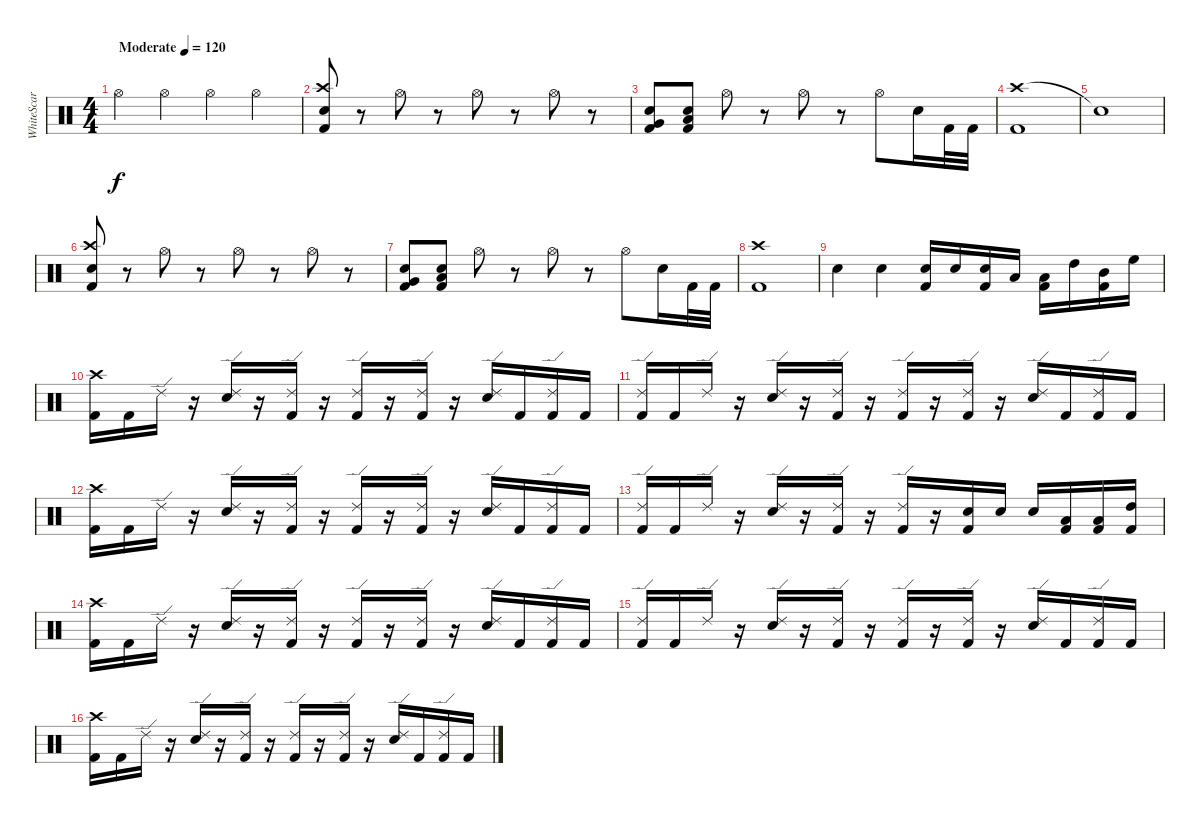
\track ("WhiteScar" "WhiteScar") {instrument percussion}
\staff {score}
\articulation defaults
\ts (4 4)
\tempo (120 "Moderate")
\clef neutral
\ks c "Hi-Hat (open)".4{dy f} "Hi-Hat (open)".4 "Hi-Hat (open)".4 "Hi-Hat (open)".4
|
("Snare (hit) 2" "Crash high (hit)" "Kick (hit) 2").8 r.8 "Hi-Hat (open)".8 r.8 "Hi-Hat (open)".8 r.8 "Hi-Hat (open)".8 r.8 |
("Very Low Tom (hit)" "Snare (hit) 2" "Kick (hit) 2").8 ("Low Tom (hit)" "Snare (hit) 2" "Kick (hit) 2").8 "Hi-Hat (open)".8 r.8 "Hi-Hat (open)".8 r.8 "Hi-Hat (open)".8 "Snare (hit) 2".16 "Kick (hit) 2".32 "Kick (hit) 2".32 |
("Crash high (hit)" "Kick (hit) 2").1 |
"Snare (hit)"{t}.1 |
("Snare (hit) 2" "Crash high (hit)" "Kick (hit) 2").8 r.8 "Hi-Hat (open)".8 r.8 "Hi-Hat (open)".8 r.8 "Hi-Hat (open)".8 r.8 |
("Very Low Tom (hit)" "Snare (hit) 2" "Kick (hit) 2").8 ("Low Tom (hit)" "Snare (hit) 2" "Kick (hit) 2").8 "Hi-Hat (open)".8 r.8 "Hi-Hat (open)".8 r.8 "Hi-Hat (open)".8 "Snare (hit) 2".16 "Kick (hit) 2".32 "Kick (hit) 2".32 |
("Crash high (hit)" "Kick (hit) 2").1 |
"Snare (hit) 2".4 "Snare (hit) 2".4 ("Snare (hit) 2" "Kick (hit) 2").16 "Snare (hit) 2".16 ("Snare (hit) 2" "Kick (hit) 2").16 "Low Tom (hit)".16 ("Low Tom (hit)" "Kick (hit) 2").16 "High Tom (hit)".16 ("Mid Tom (hit)" "Kick (hit) 2").16 "High Floor Tom (hit)".16 |
("Crash high (hit)" "Kick (hit) 2").16 "Kick (hit) 2".16 "Ride (edge) 2".16 r.16 ("Ride (edge) 2" "Snare (hit) 2").16 r.16 ("Ride (edge) 2" "Kick (hit) 2").16 r.16 ("Ride (edge) 2" "Kick (hit) 2").16 r.16 ("Ride (edge) 2" "Kick (hit) 2").16 r.16 ("Ride (edge) 2" "Snare (hit) 2").16 "Kick (hit) 2".16 ("Ride (edge) 2" "Kick (hit) 2").16 "Kick (hit) 2".16 |
("Ride (edge) 2" "Kick (hit) 2").16 "Kick (hit) 2".16 "Ride (edge) 2".16 r.16 ("Ride (edge) 2" "Snare (hit) 2").16 r.16 ("Ride (edge) 2" "Kick (hit) 2").16 r.16 ("Ride (edge) 2" "Kick (hit) 2").16 r.16 ("Ride (edge) 2" "Kick (hit) 2").16 r.16 ("Ride (edge) 2" "Snare (hit) 2").16 "Kick (hit) 2".16 ("Ride (edge) 2" "Kick (hit) 2").16 "Kick (hit) 2".16 |
("Crash high (hit)" "Kick (hit) 2").16 "Kick (hit) 2".16 "Ride (edge) 2".16 r.16 ("Ride (edge) 2" "Snare (hit) 2").16 r.16 ("Ride (edge) 2" "Kick (hit) 2").16 r.16 ("Ride (edge) 2" "Kick (hit) 2").16 r.16 ("Ride (edge) 2" "Kick (hit) 2").16 r.16 ("Ride (edge) 2" "Snare (hit) 2").16 "Kick (hit) 2".16 ("Ride (edge) 2" "Kick (hit) 2").16 "Kick (hit) 2".16 |
("Ride (edge) 2" "Kick (hit) 2").16 "Kick (hit) 2".16 "Ride (edge) 2".16 r.16 ("Ride (edge) 2" "Snare (hit) 2").16 r.16 ("Ride (edge) 2" "Kick (hit) 2").16 r.16 ("Ride (edge) 2" "Kick (hit) 2").16 r.16 ("Snare (hit) 2" "Kick (hit) 2").16 "Snare (hit) 2".16 "Snare (hit) 2".16 ("Low Tom (hit)" "Kick (hit) 2").16 ("Low Tom (hit)" "Kick (hit) 2").16 ("High Tom (hit)" "Kick (hit) 2").16 |
("Crash high (hit)" "Kick (hit) 2").16 "Kick (hit) 2".16 "Ride (edge) 2".16 r.16 ("Ride (edge) 2" "Snare (hit) 2").16 r.16 ("Ride (edge) 2" "Kick (hit) 2").16 r.16 ("Ride (edge) 2" "Kick (hit) 2").16 r.16 ("Ride (edge) 2" "Kick (hit) 2").16 r.16 ("Ride (edge) 2" "Snare (hit) 2").16 "Kick (hit) 2".16 ("Ride (edge) 2" "Kick (hit) 2").16 "Kick (hit) 2".16 |
("Ride (edge) 2" "Kick (hit) 2").16 "Kick (hit) 2".16 "Ride (edge) 2".16 r.16 ("Ride (edge) 2" "Snare (hit) 2").16 r.16 ("Ride (edge) 2" "Kick (hit) 2").16 r.16 ("Ride (edge) 2" "Kick (hit) 2").16 r.16 ("Ride (edge) 2" "Kick (hit) 2").16 r.16 ("Ride (edge) 2" "Snare (hit) 2").16 "Kick (hit) 2".16 ("Ride (edge) 2" "Kick (hit) 2").16 "Kick (hit) 2".16 |
("Crash high (hit)" "Kick (hit) 2").16 "Kick (hit) 2".16 "Ride (edge) 2".16 r.16 ("Ride (edge) 2" "Snare (hit) 2").16 r.16 ("Ride (edge) 2" "Kick (hit) 2").16 r.16 ("Ride (edge) 2" "Kick (hit) 2").16 r.16 ("Ride (edge) 2" "Kick (hit) 2").16 r.16 ("Ride (edge) 2" "Snare (hit) 2").16 "Kick (hit) 2".16 ("Ride (edge) 2" "Kick (hit) 2").16 "Kick (hit) 2".16
